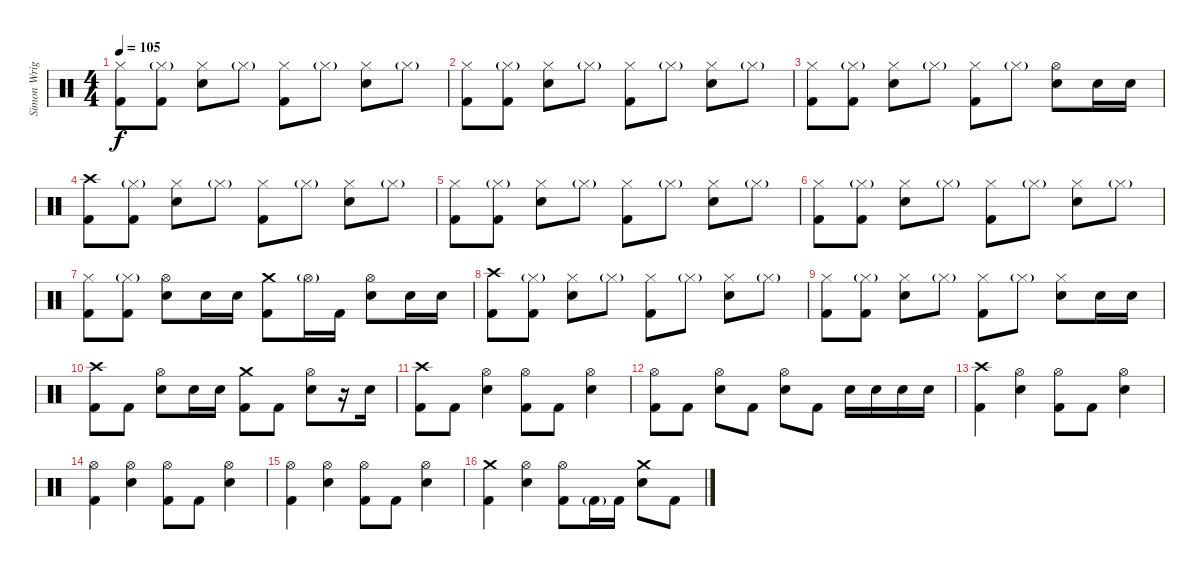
\track ("Simon Wright" "Simon Wrig") {instrument percussion}
\staff {score}
\articulation defaults
\ts (4 4)
\tempo 105
\clef neutral
\ks c
("Hi-Hat (closed)" "Kick (hit) 2").8{dy f} ("Hi-Hat (closed)"{g} "Kick (hit) 2").8 ("Hi-Hat (closed)" "Snare (hit) 2").8 "Hi-Hat (closed)"{g}.8 ("Hi-Hat (closed)" "Kick (hit) 2").8 "Hi-Hat (closed)"{g}.8 ("Hi-Hat (closed)" "Snare (hit) 2").8 "Hi-Hat (closed)"{g}.8 |
("Hi-Hat (closed)" "Kick (hit) 2").8 ("Hi-Hat (closed)"{g} "Kick (hit) 2").8 ("Hi-Hat (closed)" "Snare (hit) 2").8 "Hi-Hat (closed)"{g}.8 ("Hi-Hat (closed)" "Kick (hit) 2").8 "Hi-Hat (closed)"{g}.8 ("Hi-Hat (closed)" "Snare (hit) 2").8 "Hi-Hat (closed)"{g}.8 |
("Hi-Hat (closed)" "Kick (hit) 2").8 ("Hi-Hat (closed)"{g} "Kick (hit) 2").8 ("Hi-Hat (closed)" "Snare (hit) 2").8 "Hi-Hat (closed)"{g}.8 ("Hi-Hat (closed)" "Kick (hit) 2").8 "Hi-Hat (closed)"{g}.8 ("Hi-Hat (open)" "Snare (hit) 2").8 "Snare (hit) 2".16 "Snare (hit) 2".16 |
("Crash high (hit)" "Kick (hit) 2").8 ("Hi-Hat (closed)"{g} "Kick (hit) 2").8 ("Hi-Hat (closed)" "Snare (hit) 2").8 "Hi-Hat (closed)"{g}.8 ("Hi-Hat (closed)" "Kick (hit) 2").8 "Hi-Hat (closed)"{g}.8 ("Hi-Hat (closed)" "Snare (hit) 2").8 "Hi-Hat (closed)"{g}.8 |
("Hi-Hat (closed)" "Kick (hit) 2").8 ("Hi-Hat (closed)"{g} "Kick (hit) 2").8 ("Hi-Hat (closed)" "Snare (hit) 2").8 "Hi-Hat (closed)"{g}.8 ("Hi-Hat (closed)" "Kick (hit) 2").8 "Hi-Hat (closed)"{g}.8 ("Hi-Hat (closed)" "Snare (hit) 2").8 "Hi-Hat (closed)"{g}.8 |
("Hi-Hat (closed)" "Kick (hit) 2").8 ("Hi-Hat (closed)"{g} "Kick (hit) 2").8 ("Hi-Hat (closed)" "Snare (hit) 2").8 "Hi-Hat (closed)"{g}.8 ("Hi-Hat (closed)" "Kick (hit) 2").8 "Hi-Hat (closed)"{g}.8 ("Hi-Hat (closed)" "Snare (hit) 2").8 "Hi-Hat (closed)"{g}.8 |
("Hi-Hat (closed)" "Kick (hit) 2").8 ("Hi-Hat (closed)"{g} "Kick (hit) 2").8 ("Hi-Hat (open)" "Snare (hit) 2").8 "Snare (hit) 2".16 "Snare (hit) 2".16 ("Crash medium (hit)" "Kick (hit) 2").8 "Hi-Hat (open)"{g}.16 "Kick (hit) 2".16 ("Hi-Hat (open)" "Snare (hit) 2").8 "Snare (hit) 2".16 "Snare (hit) 2".16 |
("Crash high (hit)" "Kick (hit) 2").8 ("Hi-Hat (closed)"{g} "Kick (hit) 2").8 ("Hi-Hat (closed)" "Snare (hit) 2").8 "Hi-Hat (closed)"{g}.8 ("Hi-Hat (closed)" "Kick (hit) 2").8 "Hi-Hat (closed)"{g}.8 ("Hi-Hat (closed)" "Snare (hit) 2").8 "Hi-Hat (closed)"{g}.8 |
("Hi-Hat (closed)" "Kick (hit) 2").8 ("Hi-Hat (closed)"{g} "Kick (hit) 2").8 ("Hi-Hat (closed)" "Snare (hit) 2").8 "Hi-Hat (closed)"{g}.8 ("Hi-Hat (closed)" "Kick (hit) 2").8 "Hi-Hat (closed)"{g}.8 ("Hi-Hat (closed)" "Snare (hit) 2").8 "Snare (hit) 2".16 "Snare (hit) 2".16 |
("Crash high (hit)" "Kick (hit) 2").8 "Kick (hit) 2".8 ("Hi-Hat (open)" "Snare (hit) 2").8 "Snare (hit) 2".16 "Snare (hit) 2".16 ("Crash medium (hit)" "Kick (hit) 2").8 "Kick (hit) 2".8 ("Hi-Hat (open)" "Snare (hit) 2").8 r.16 "Snare (hit) 2".16 |
("Crash high (hit)" "Kick (hit) 2").8 "Kick (hit) 2".8 ("Hi-Hat (open)" "Snare (hit) 2").4 ("Hi-Hat (open)" "Kick (hit) 2").8 "Kick (hit) 2".8 ("Hi-Hat (open)" "Snare (hit) 2").4 |
("Hi-Hat (open)" "Kick (hit) 2").8 "Kick (hit) 2".8 ("Hi-Hat (open)" "Snare (hit) 2").8 "Kick (hit) 2".8 ("Hi-Hat (open)" "Snare (hit) 2").8 "Kick (hit) 2".8 "Snare (hit) 2".16 "Snare (hit) 2".16 "Snare (hit) 2".16 "Snare (hit) 2".16 |
("Crash high (hit)" "Kick (hit) 2").4 ("Hi-Hat (open)" "Snare (hit) 2").4 ("Hi-Hat (open)" "Kick (hit) 2").8 "Kick (hit) 2".8 ("Hi-Hat (open)" "Snare (hit) 2").4 |
("Hi-Hat (open)" "Kick (hit) 2").4 ("Hi-Hat (open)" "Snare (hit) 2").4 ("Hi-Hat (open)" "Kick (hit) 2").8 "Kick (hit) 2".8 ("Hi-Hat (open)" "Snare (hit) 2").4 |
("Hi-Hat (open)" "Kick (hit) 2").4 ("Hi-Hat (open)" "Snare (hit) 2").4 ("Hi-Hat (open)" "Kick (hit) 2").8 "Kick (hit) 2".8 ("Hi-Hat (open)" "Snare (hit) 2").4 |
("Crash medium (hit)" "Kick (hit) 2").4 ("Hi-Hat (open)" "Snare (hit) 2").4 ("Hi-Hat (open)" "Kick (hit) 2").8 "Kick (hit) 2"{g}.16 "Kick (hit) 2".16 ("Crash medium (hit)" "Snare (hit) 2").8 "Kick (hit) 2".8
